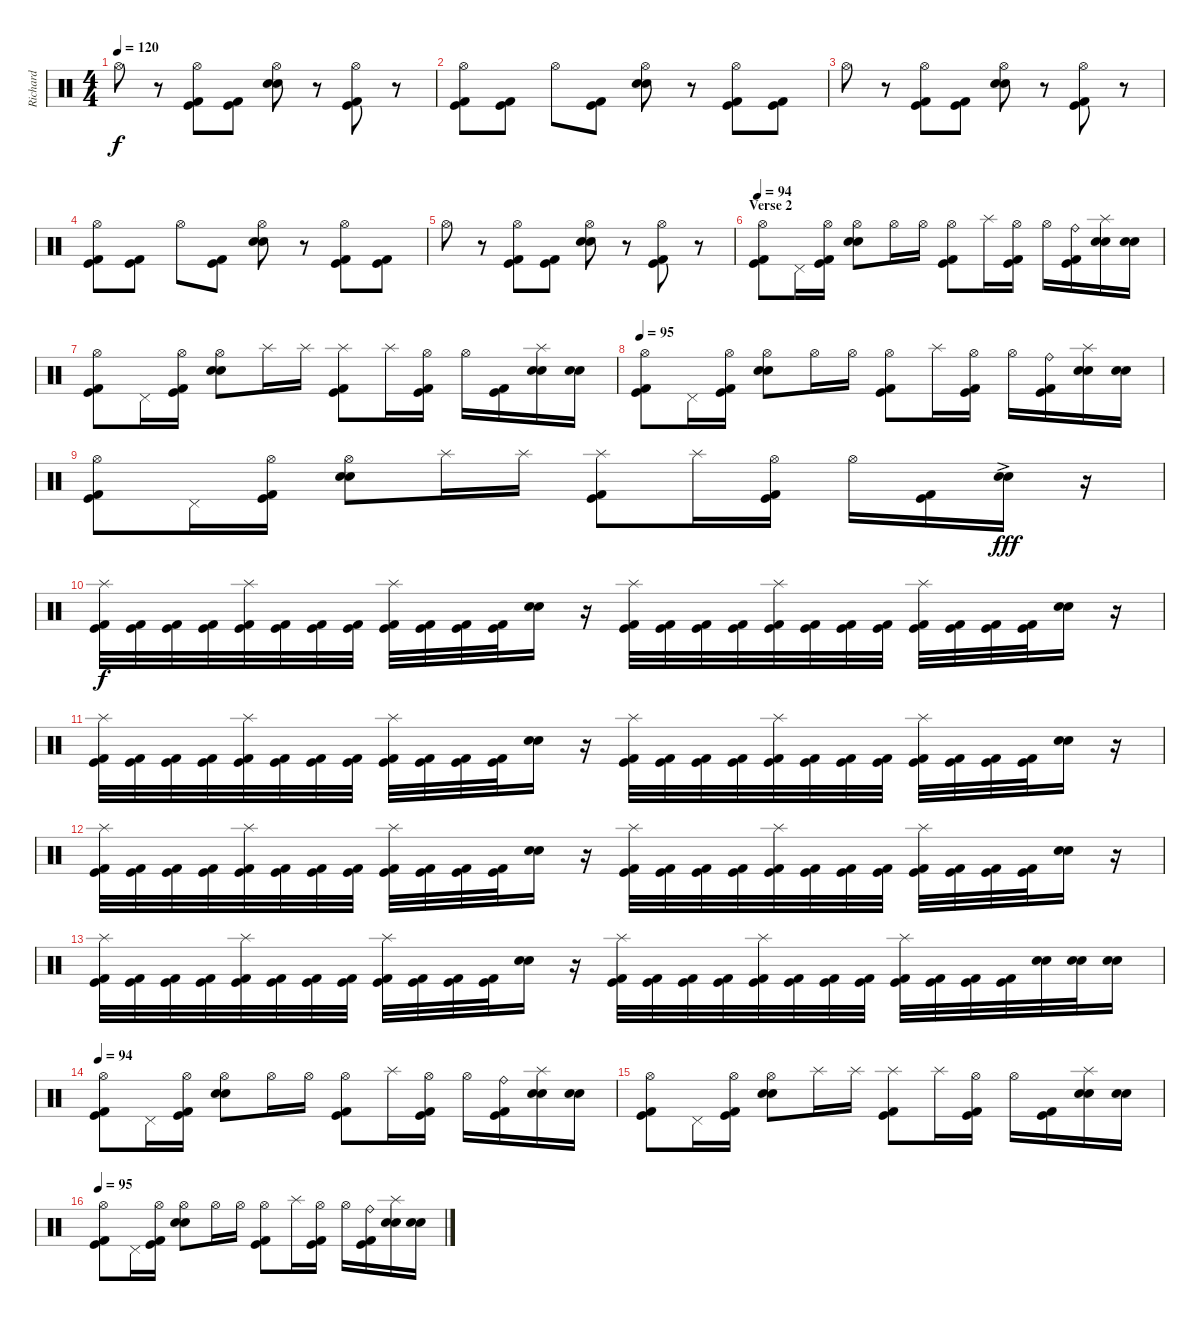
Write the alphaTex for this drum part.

\track ("Richard" "Richard") {instrument percussion}
\staff {score}
\articulation defaults
\ts (4 4)
\tempo 120
\clef neutral
\ks c "Hi-Hat (open)".8{dy f}
r.8 ("Hi-Hat (open)" "Kick (hit)" "Kick (hit) 2").8 ("Kick (hit)" "Kick (hit) 2").8 ("Hi-Hat (open)" "Snare (hit) 2" "Electric Snare (hit)").8 r.8 ("Hi-Hat (open)" "Kick (hit)" "Kick (hit) 2").8 r.8 |
("Hi-Hat (open)" "Kick (hit)" "Kick (hit) 2").8 ("Kick (hit)" "Kick (hit) 2").8 "Hi-Hat (open)".8 ("Kick (hit)" "Kick (hit) 2").8 ("Hi-Hat (open)" "Snare (hit) 2" "Electric Snare (hit)").8 r.8 ("Hi-Hat (open)" "Kick (hit)" "Kick (hit) 2").8 ("Kick (hit)" "Kick (hit) 2").8 |
"Hi-Hat (open)".8 r.8 ("Hi-Hat (open)" "Kick (hit)" "Kick (hit) 2").8 ("Kick (hit)" "Kick (hit) 2").8 ("Hi-Hat (open)" "Snare (hit) 2" "Electric Snare (hit)").8 r.8 ("Hi-Hat (open)" "Kick (hit)" "Kick (hit) 2").8 r.8 |
("Hi-Hat (open)" "Kick (hit)" "Kick (hit) 2").8 ("Kick (hit)" "Kick (hit) 2").8 "Hi-Hat (open)".8 ("Kick (hit)" "Kick (hit) 2").8 ("Hi-Hat (open)" "Snare (hit) 2" "Electric Snare (hit)").8 r.8 ("Hi-Hat (open)" "Kick (hit)" "Kick (hit) 2").8 ("Kick (hit)" "Kick (hit) 2").8 |
"Hi-Hat (open)".8 r.8 ("Hi-Hat (open)" "Kick (hit)" "Kick (hit) 2").8 ("Kick (hit)" "Kick (hit) 2").8 ("Hi-Hat (open)" "Snare (hit) 2" "Electric Snare (hit)").8 r.8 ("Hi-Hat (open)" "Kick (hit)" "Kick (hit) 2").8 r.8 |
\section ("" "Verse 2")
\tempo 95
\tempo 94
("Hi-Hat (open)" "Kick (hit)" "Kick (hit) 2").8 "Pedal Hi-Hat (hit)".16 ("Hi-Hat (open)" "Kick (hit)" "Kick (hit) 2").16 ("Hi-Hat (open)" "Snare (hit) 2" "Electric Snare (hit)").8 "Hi-Hat (open)".16 "Hi-Hat (open)".16 ("Hi-Hat (open)" "Kick (hit)" "Kick (hit) 2").8 "Splash (hit)".16 ("Hi-Hat (open)" "Kick (hit)" "Kick (hit) 2").16 "Hi-Hat (open)".16 ("Ride (bell)" "Kick (hit)" "Kick (hit) 2").16 ("Splash (hit)" "Snare (hit) 2" "Electric Snare (hit)").16 ("Snare (hit) 2" "Electric Snare (hit)").16 |
("Hi-Hat (open)" "Kick (hit)" "Kick (hit) 2").8 "Pedal Hi-Hat (hit)".16 ("Hi-Hat (open)" "Kick (hit)" "Kick (hit) 2").16 ("Hi-Hat (open)" "Snare (hit) 2" "Electric Snare (hit)").8 "Splash (hit)".16 "Splash (hit)".16 ("Splash (hit)" "Kick (hit)" "Kick (hit) 2").8 "Splash (hit)".16 ("Hi-Hat (open)" "Kick (hit)" "Kick (hit) 2").16 "Hi-Hat (open)".16 ("Kick (hit)" "Kick (hit) 2").16 ("Splash (hit)" "Snare (hit) 2" "Electric Snare (hit)").16 ("Snare (hit) 2" "Electric Snare (hit)").16 |
\tempo 95
("Hi-Hat (open)" "Kick (hit)" "Kick (hit) 2").8 "Pedal Hi-Hat (hit)".16 ("Hi-Hat (open)" "Kick (hit)" "Kick (hit) 2").16 ("Hi-Hat (open)" "Snare (hit) 2" "Electric Snare (hit)").8 "Hi-Hat (open)".16 "Hi-Hat (open)".16 ("Hi-Hat (open)" "Kick (hit)" "Kick (hit) 2").8 "Splash (hit)".16 ("Hi-Hat (open)" "Kick (hit)" "Kick (hit) 2").16 "Hi-Hat (open)".16 ("Ride (bell)" "Kick (hit)" "Kick (hit) 2").16 ("Splash (hit)" "Snare (hit) 2" "Electric Snare (hit)").16 ("Snare (hit) 2" "Electric Snare (hit)").16 |
("Hi-Hat (open)" "Kick (hit)" "Kick (hit) 2").8 "Pedal Hi-Hat (hit)".16 ("Hi-Hat (open)" "Kick (hit)" "Kick (hit) 2").16 ("Hi-Hat (open)" "Snare (hit) 2" "Electric Snare (hit)").8 "Splash (hit)".16 "Splash (hit)".16 ("Splash (hit)" "Kick (hit)" "Kick (hit) 2").8 "Splash (hit)".16 ("Hi-Hat (open)" "Kick (hit)" "Kick (hit) 2").16 "Hi-Hat (open)".16 ("Kick (hit)" "Kick (hit) 2").16 ("Snare (hit) 2"{ac} "Electric Snare (hit)"{ac}).16{dy fff} r.16 |
("Splash (hit)" "Kick (hit)" "Kick (hit) 2").32{dy f} ("Kick (hit)" "Kick (hit) 2").32 ("Kick (hit)" "Kick (hit) 2").32 ("Kick (hit)" "Kick (hit) 2").32 ("Splash (hit)" "Kick (hit)" "Kick (hit) 2").32 ("Kick (hit)" "Kick (hit) 2").32 ("Kick (hit)" "Kick (hit) 2").32 ("Kick (hit)" "Kick (hit) 2").32 ("Splash (hit)" "Kick (hit)" "Kick (hit) 2").32 ("Kick (hit)" "Kick (hit) 2").32 ("Kick (hit)" "Kick (hit) 2").32 ("Kick (hit)" "Kick (hit) 2").32 ("Snare (hit) 2" "Electric Snare (hit)").16 r.16 ("Splash (hit)" "Kick (hit)" "Kick (hit) 2").32 ("Kick (hit)" "Kick (hit) 2").32 ("Kick (hit)" "Kick (hit) 2").32 ("Kick (hit)" "Kick (hit) 2").32 ("Splash (hit)" "Kick (hit)" "Kick (hit) 2").32 ("Kick (hit)" "Kick (hit) 2").32 ("Kick (hit)" "Kick (hit) 2").32 ("Kick (hit)" "Kick (hit) 2").32 ("Splash (hit)" "Kick (hit)" "Kick (hit) 2").32 ("Kick (hit)" "Kick (hit) 2").32 ("Kick (hit)" "Kick (hit) 2").32 ("Kick (hit)" "Kick (hit) 2").32 ("Snare (hit) 2" "Electric Snare (hit)").16 r.16 |
("Splash (hit)" "Kick (hit)" "Kick (hit) 2").32 ("Kick (hit)" "Kick (hit) 2").32 ("Kick (hit)" "Kick (hit) 2").32 ("Kick (hit)" "Kick (hit) 2").32 ("Splash (hit)" "Kick (hit)" "Kick (hit) 2").32 ("Kick (hit)" "Kick (hit) 2").32 ("Kick (hit)" "Kick (hit) 2").32 ("Kick (hit)" "Kick (hit) 2").32 ("Splash (hit)" "Kick (hit)" "Kick (hit) 2").32 ("Kick (hit)" "Kick (hit) 2").32 ("Kick (hit)" "Kick (hit) 2").32 ("Kick (hit)" "Kick (hit) 2").32 ("Snare (hit) 2" "Electric Snare (hit)").16 r.16 ("Splash (hit)" "Kick (hit)" "Kick (hit) 2").32 ("Kick (hit)" "Kick (hit) 2").32 ("Kick (hit)" "Kick (hit) 2").32 ("Kick (hit)" "Kick (hit) 2").32 ("Splash (hit)" "Kick (hit)" "Kick (hit) 2").32 ("Kick (hit)" "Kick (hit) 2").32 ("Kick (hit)" "Kick (hit) 2").32 ("Kick (hit)" "Kick (hit) 2").32 ("Splash (hit)" "Kick (hit)" "Kick (hit) 2").32 ("Kick (hit)" "Kick (hit) 2").32 ("Kick (hit)" "Kick (hit) 2").32 ("Kick (hit)" "Kick (hit) 2").32 ("Snare (hit) 2" "Electric Snare (hit)").16 r.16 |
("Splash (hit)" "Kick (hit)" "Kick (hit) 2").32 ("Kick (hit)" "Kick (hit) 2").32 ("Kick (hit)" "Kick (hit) 2").32 ("Kick (hit)" "Kick (hit) 2").32 ("Splash (hit)" "Kick (hit)" "Kick (hit) 2").32 ("Kick (hit)" "Kick (hit) 2").32 ("Kick (hit)" "Kick (hit) 2").32 ("Kick (hit)" "Kick (hit) 2").32 ("Splash (hit)" "Kick (hit)" "Kick (hit) 2").32 ("Kick (hit)" "Kick (hit) 2").32 ("Kick (hit)" "Kick (hit) 2").32 ("Kick (hit)" "Kick (hit) 2").32 ("Snare (hit) 2" "Electric Snare (hit)").16 r.16 ("Splash (hit)" "Kick (hit)" "Kick (hit) 2").32 ("Kick (hit)" "Kick (hit) 2").32 ("Kick (hit)" "Kick (hit) 2").32 ("Kick (hit)" "Kick (hit) 2").32 ("Splash (hit)" "Kick (hit)" "Kick (hit) 2").32 ("Kick (hit)" "Kick (hit) 2").32 ("Kick (hit)" "Kick (hit) 2").32 ("Kick (hit)" "Kick (hit) 2").32 ("Splash (hit)" "Kick (hit)" "Kick (hit) 2").32 ("Kick (hit)" "Kick (hit) 2").32 ("Kick (hit)" "Kick (hit) 2").32 ("Kick (hit)" "Kick (hit) 2").32 ("Snare (hit) 2" "Electric Snare (hit)").16 r.16 |
("Splash (hit)" "Kick (hit)" "Kick (hit) 2").32 ("Kick (hit)" "Kick (hit) 2").32 ("Kick (hit)" "Kick (hit) 2").32 ("Kick (hit)" "Kick (hit) 2").32 ("Splash (hit)" "Kick (hit)" "Kick (hit) 2").32 ("Kick (hit)" "Kick (hit) 2").32 ("Kick (hit)" "Kick (hit) 2").32 ("Kick (hit)" "Kick (hit) 2").32 ("Splash (hit)" "Kick (hit)" "Kick (hit) 2").32 ("Kick (hit)" "Kick (hit) 2").32 ("Kick (hit)" "Kick (hit) 2").32 ("Kick (hit)" "Kick (hit) 2").32 ("Snare (hit) 2" "Electric Snare (hit)").16 r.16 ("Splash (hit)" "Kick (hit)" "Kick (hit) 2").32 ("Kick (hit)" "Kick (hit) 2").32 ("Kick (hit)" "Kick (hit) 2").32 ("Kick (hit)" "Kick (hit) 2").32 ("Splash (hit)" "Kick (hit)" "Kick (hit) 2").32 ("Kick (hit)" "Kick (hit) 2").32 ("Kick (hit)" "Kick (hit) 2").32 ("Kick (hit)" "Kick (hit) 2").32 ("Splash (hit)" "Kick (hit)" "Kick (hit) 2").32 ("Kick (hit)" "Kick (hit) 2").32 ("Kick (hit)" "Kick (hit) 2").32 ("Kick (hit)" "Kick (hit) 2").32 ("Snare (hit) 2" "Electric Snare (hit)").32 ("Snare (hit) 2" "Electric Snare (hit)").32 ("Snare (hit) 2" "Electric Snare (hit)").16 |
\tempo 94
("Hi-Hat (open)" "Kick (hit)" "Kick (hit) 2").8 "Pedal Hi-Hat (hit)".16 ("Hi-Hat (open)" "Kick (hit)" "Kick (hit) 2").16 ("Hi-Hat (open)" "Snare (hit) 2" "Electric Snare (hit)").8 "Hi-Hat (open)".16 "Hi-Hat (open)".16 ("Hi-Hat (open)" "Kick (hit)" "Kick (hit) 2").8 "Splash (hit)".16 ("Hi-Hat (open)" "Kick (hit)" "Kick (hit) 2").16 "Hi-Hat (open)".16 ("Ride (bell)" "Kick (hit)" "Kick (hit) 2").16 ("Splash (hit)" "Snare (hit) 2" "Electric Snare (hit)").16 ("Snare (hit) 2" "Electric Snare (hit)").16 |
("Hi-Hat (open)" "Kick (hit)" "Kick (hit) 2").8 "Pedal Hi-Hat (hit)".16 ("Hi-Hat (open)" "Kick (hit)" "Kick (hit) 2").16 ("Hi-Hat (open)" "Snare (hit) 2" "Electric Snare (hit)").8 "Splash (hit)".16 "Splash (hit)".16 ("Splash (hit)" "Kick (hit)" "Kick (hit) 2").8 "Splash (hit)".16 ("Hi-Hat (open)" "Kick (hit)" "Kick (hit) 2").16 "Hi-Hat (open)".16 ("Kick (hit)" "Kick (hit) 2").16 ("Splash (hit)" "Snare (hit) 2" "Electric Snare (hit)").16 ("Snare (hit) 2" "Electric Snare (hit)").16 |
\tempo 95
("Hi-Hat (open)" "Kick (hit)" "Kick (hit) 2").8 "Pedal Hi-Hat (hit)".16 ("Hi-Hat (open)" "Kick (hit)" "Kick (hit) 2").16 ("Hi-Hat (open)" "Snare (hit) 2" "Electric Snare (hit)").8 "Hi-Hat (open)".16 "Hi-Hat (open)".16 ("Hi-Hat (open)" "Kick (hit)" "Kick (hit) 2").8 "Splash (hit)".16 ("Hi-Hat (open)" "Kick (hit)" "Kick (hit) 2").16 "Hi-Hat (open)".16 ("Ride (bell)" "Kick (hit)" "Kick (hit) 2").16 ("Splash (hit)" "Snare (hit) 2" "Electric Snare (hit)").16 ("Snare (hit) 2" "Electric Snare (hit)").16
